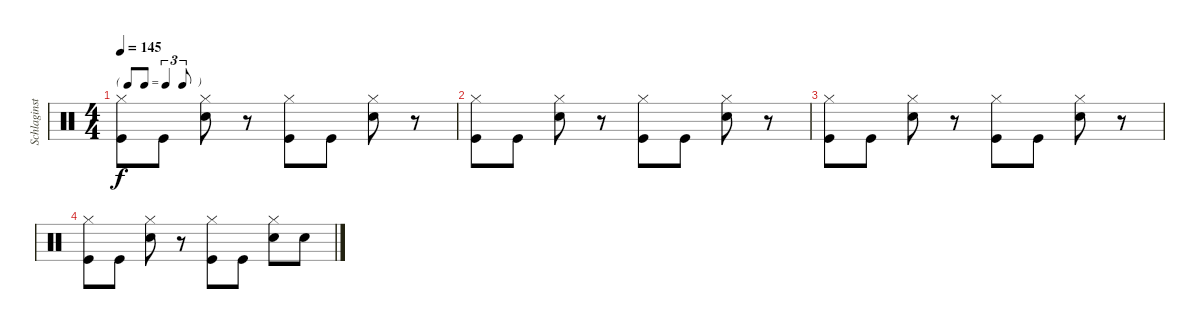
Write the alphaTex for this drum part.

\track ("Schlaginstrumente - Auswahl" "Schlaginst") {instrument percussion}
\staff {score}
\articulation defaults
\ts (4 4)
\tf triplet8th
\tempo 145
\clef neutral
\ks c
("Hi-Hat (closed)" "Kick (hit)").8{dy f} "Kick (hit)".8 ("Hi-Hat (closed)" "Snare (hit) 2").8 r.8 ("Hi-Hat (closed)" "Kick (hit)").8 "Kick (hit)".8 ("Hi-Hat (closed)" "Snare (hit) 2").8 r.8 |
("Hi-Hat (closed)" "Kick (hit)").8 "Kick (hit)".8 ("Hi-Hat (closed)" "Snare (hit) 2").8 r.8 ("Hi-Hat (closed)" "Kick (hit)").8 "Kick (hit)".8 ("Hi-Hat (closed)" "Snare (hit) 2").8 r.8 |
("Hi-Hat (closed)" "Kick (hit)").8 "Kick (hit)".8 ("Hi-Hat (closed)" "Snare (hit) 2").8 r.8 ("Hi-Hat (closed)" "Kick (hit)").8 "Kick (hit)".8 ("Hi-Hat (closed)" "Snare (hit) 2").8 r.8 |
("Hi-Hat (closed)" "Kick (hit)").8 "Kick (hit)".8 ("Hi-Hat (closed)" "Snare (hit) 2").8 r.8 ("Hi-Hat (closed)" "Kick (hit)").8 "Kick (hit)".8 ("Hi-Hat (closed)" "Snare (hit) 2").8 "Snare (hit) 2".8
